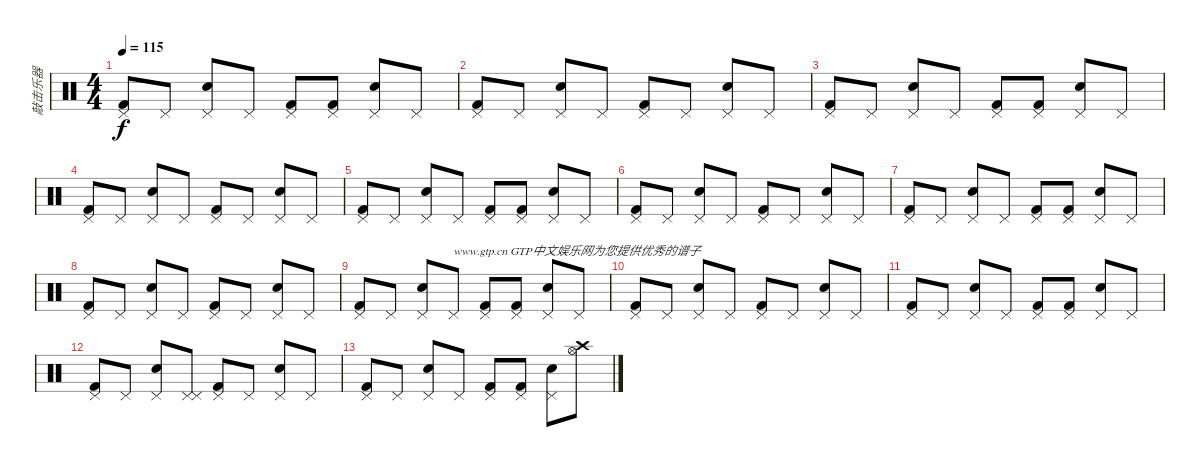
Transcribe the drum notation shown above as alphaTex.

\track ("敲击乐器" "敲击乐器") {instrument percussion}
\staff {score}
\articulation defaults
\ts (4 4)
\tempo 115
\clef neutral
\ks c
("Pedal Hi-Hat (hit)" "Kick (hit) 2").8{dy f} "Pedal Hi-Hat (hit)".8 ("Pedal Hi-Hat (hit)" "Electric Snare (hit)").8 "Pedal Hi-Hat (hit)".8 ("Pedal Hi-Hat (hit)" "Kick (hit) 2").8 ("Pedal Hi-Hat (hit)" "Kick (hit) 2").8 ("Pedal Hi-Hat (hit)" "Electric Snare (hit)").8 "Pedal Hi-Hat (hit)".8 |
("Pedal Hi-Hat (hit)" "Kick (hit) 2").8 "Pedal Hi-Hat (hit)".8 ("Pedal Hi-Hat (hit)" "Electric Snare (hit)").8 "Pedal Hi-Hat (hit)".8 ("Pedal Hi-Hat (hit)" "Kick (hit) 2").8 "Pedal Hi-Hat (hit)".8 ("Pedal Hi-Hat (hit)" "Electric Snare (hit)").8 "Pedal Hi-Hat (hit)".8 |
("Pedal Hi-Hat (hit)" "Kick (hit) 2").8 "Pedal Hi-Hat (hit)".8 ("Pedal Hi-Hat (hit)" "Electric Snare (hit)").8 "Pedal Hi-Hat (hit)".8 ("Pedal Hi-Hat (hit)" "Kick (hit) 2").8 ("Pedal Hi-Hat (hit)" "Kick (hit) 2").8 ("Pedal Hi-Hat (hit)" "Electric Snare (hit)").8 "Pedal Hi-Hat (hit)".8 |
("Pedal Hi-Hat (hit)" "Kick (hit) 2").8 "Pedal Hi-Hat (hit)".8 ("Pedal Hi-Hat (hit)" "Electric Snare (hit)").8 "Pedal Hi-Hat (hit)".8 ("Pedal Hi-Hat (hit)" "Kick (hit) 2").8 "Pedal Hi-Hat (hit)".8 ("Pedal Hi-Hat (hit)" "Electric Snare (hit)").8 "Pedal Hi-Hat (hit)".8 |
("Pedal Hi-Hat (hit)" "Kick (hit) 2").8 "Pedal Hi-Hat (hit)".8 ("Pedal Hi-Hat (hit)" "Electric Snare (hit)").8 "Pedal Hi-Hat (hit)".8 ("Pedal Hi-Hat (hit)" "Kick (hit) 2").8 ("Pedal Hi-Hat (hit)" "Kick (hit) 2").8 ("Pedal Hi-Hat (hit)" "Electric Snare (hit)").8 "Pedal Hi-Hat (hit)".8 |
("Pedal Hi-Hat (hit)" "Kick (hit) 2").8 "Pedal Hi-Hat (hit)".8 ("Pedal Hi-Hat (hit)" "Electric Snare (hit)").8 "Pedal Hi-Hat (hit)".8 ("Pedal Hi-Hat (hit)" "Kick (hit) 2").8 "Pedal Hi-Hat (hit)".8 ("Pedal Hi-Hat (hit)" "Electric Snare (hit)").8 "Pedal Hi-Hat (hit)".8 |
("Pedal Hi-Hat (hit)" "Kick (hit) 2").8 "Pedal Hi-Hat (hit)".8 ("Pedal Hi-Hat (hit)" "Electric Snare (hit)").8 "Pedal Hi-Hat (hit)".8 ("Pedal Hi-Hat (hit)" "Kick (hit) 2").8 ("Pedal Hi-Hat (hit)" "Kick (hit) 2").8 ("Pedal Hi-Hat (hit)" "Electric Snare (hit)").8 "Pedal Hi-Hat (hit)".8 |
("Pedal Hi-Hat (hit)" "Kick (hit) 2").8 "Pedal Hi-Hat (hit)".8 ("Pedal Hi-Hat (hit)" "Electric Snare (hit)").8 "Pedal Hi-Hat (hit)".8 ("Pedal Hi-Hat (hit)" "Kick (hit) 2").8 "Pedal Hi-Hat (hit)".8 ("Pedal Hi-Hat (hit)" "Electric Snare (hit)").8 "Pedal Hi-Hat (hit)".8 |
("Pedal Hi-Hat (hit)" "Kick (hit) 2").8 "Pedal Hi-Hat (hit)".8 ("Pedal Hi-Hat (hit)" "Electric Snare (hit)").8 "Pedal Hi-Hat (hit)".8{txt "www.gtp.cn GTP中文娱乐网为您提供优秀的谱子"} ("Pedal Hi-Hat (hit)" "Kick (hit) 2").8 ("Pedal Hi-Hat (hit)" "Kick (hit) 2").8 ("Pedal Hi-Hat (hit)" "Electric Snare (hit)").8 "Pedal Hi-Hat (hit)".8 |
("Pedal Hi-Hat (hit)" "Kick (hit) 2").8 "Pedal Hi-Hat (hit)".8 ("Pedal Hi-Hat (hit)" "Electric Snare (hit)").8 "Pedal Hi-Hat (hit)".8 ("Pedal Hi-Hat (hit)" "Kick (hit) 2").8 "Pedal Hi-Hat (hit)".8 ("Pedal Hi-Hat (hit)" "Electric Snare (hit)").8 "Pedal Hi-Hat (hit)".8 |
("Pedal Hi-Hat (hit)" "Kick (hit) 2").8 "Pedal Hi-Hat (hit)".8 ("Pedal Hi-Hat (hit)" "Electric Snare (hit)").8 "Pedal Hi-Hat (hit)".8 ("Pedal Hi-Hat (hit)" "Kick (hit) 2").8 ("Pedal Hi-Hat (hit)" "Kick (hit) 2").8 ("Pedal Hi-Hat (hit)" "Electric Snare (hit)").8 "Pedal Hi-Hat (hit)".8 |
("Pedal Hi-Hat (hit)" "Kick (hit) 2").8 "Pedal Hi-Hat (hit)".8 ("Pedal Hi-Hat (hit)" "Electric Snare (hit)").8 ("Pedal Hi-Hat (hit)" "Pedal Hi-Hat (hit)").8 ("Pedal Hi-Hat (hit)" "Kick (hit) 2").8 "Pedal Hi-Hat (hit)".8 ("Pedal Hi-Hat (hit)" "Electric Snare (hit)").8 "Pedal Hi-Hat (hit)".8 |
("Pedal Hi-Hat (hit)" "Kick (hit) 2").8 "Pedal Hi-Hat (hit)".8 ("Pedal Hi-Hat (hit)" "Electric Snare (hit)").8 "Pedal Hi-Hat (hit)".8 ("Pedal Hi-Hat (hit)" "Kick (hit) 2").8 ("Pedal Hi-Hat (hit)" "Kick (hit) 2").8 ("Pedal Hi-Hat (hit)" "Electric Snare (hit)").8 ("Crash high (hit)" "Hi-Hat (open)").8
